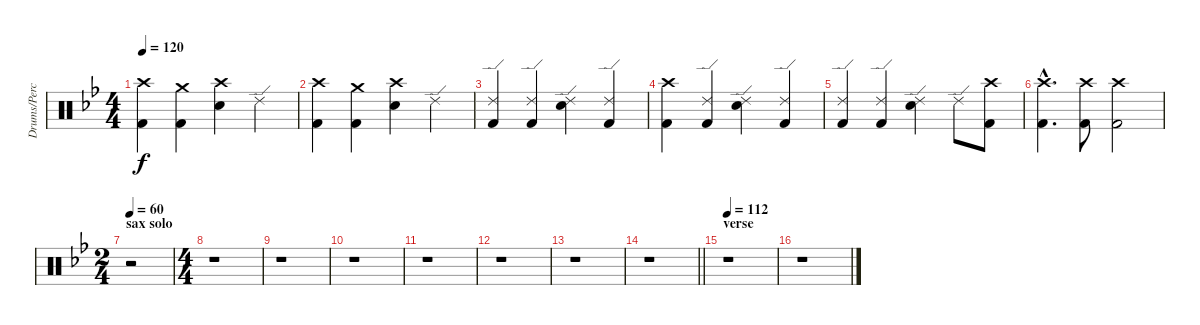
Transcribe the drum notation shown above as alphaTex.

\track ("Drums/Percussion (Bengerg)" "Drums/Perc") {instrument percussion}
\staff {score}
\articulation defaults
\ts (4 4)
\tempo 120
\clef neutral
\ks bb
("Crash high (hit)" "Kick (hit) 2").4{dy f} ("Crash medium (hit)" "Kick (hit) 2").4 ("Crash high (hit)" "Electric Snare (hit)").4 "Ride (edge) 2".4 |
("Crash high (hit)" "Kick (hit) 2").4 ("Crash medium (hit)" "Kick (hit) 2").4 ("Crash high (hit)" "Electric Snare (hit)").4 "Ride (edge) 2".4 |
("Ride (edge) 2" "Kick (hit) 2").4 ("Ride (edge) 2" "Kick (hit) 2").4 ("Ride (edge) 2" "Electric Snare (hit)").4 ("Ride (edge) 2" "Kick (hit) 2").4 |
("Crash high (hit)" "Kick (hit) 2").4 ("Ride (edge) 2" "Kick (hit) 2").4 ("Ride (edge) 2" "Electric Snare (hit)").4 ("Ride (edge) 2" "Kick (hit) 2").4 |
("Ride (edge) 2" "Kick (hit) 2").4 ("Ride (edge) 2" "Kick (hit) 2").4 ("Ride (edge) 2" "Electric Snare (hit)").4 "Ride (edge) 2".8 ("Crash high (hit)" "Kick (hit) 2").8 |
("Crash high (hit)"{hac} "Kick (hit) 2"{hac}).4{d} ("Crash high (hit)" "Kick (hit) 2").8 ("Crash high (hit)" "Kick (hit) 2").2 |
\ts (2 4)
\section ("" "sax solo")
\tempo 60
r.2 |
\ts (4 4)
r.1 |
r.1 |
r.1 |
r.1 |
r.1 |
r.1 |
\barLineRight lightlight
r.1 |
\section ("" "verse")
\tempo 112
r.1 |
r.1
